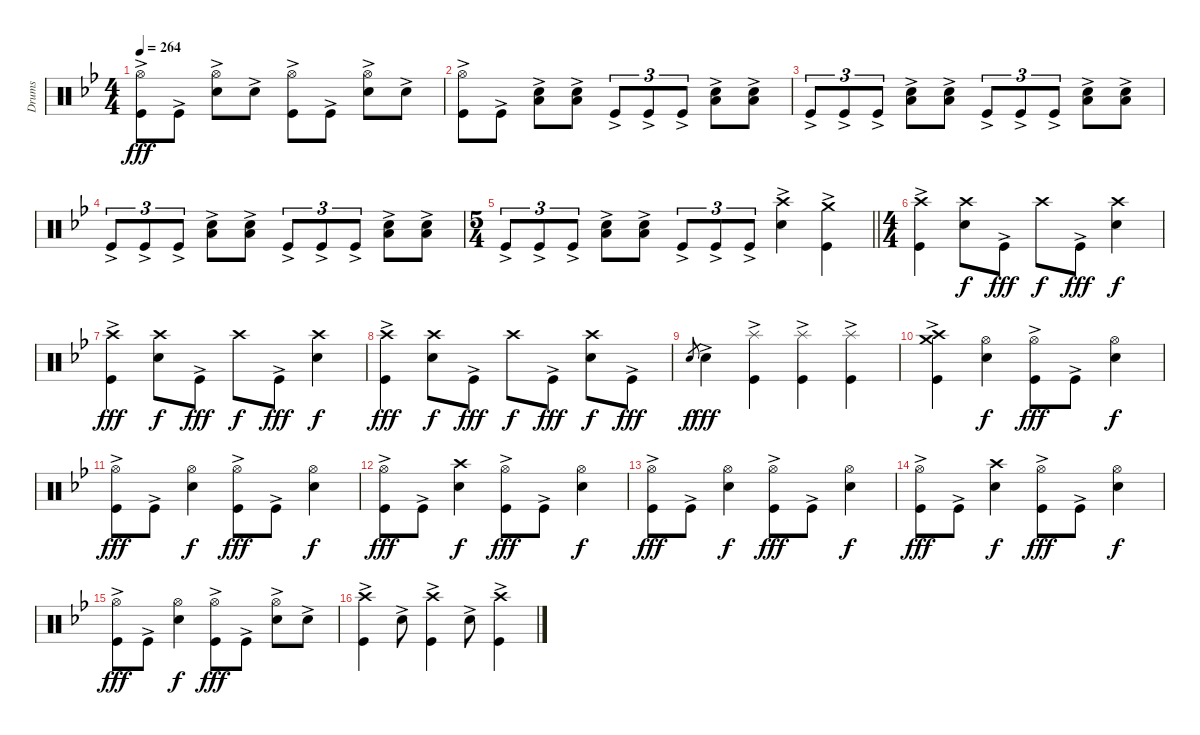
\track ("Drums" "Drums") {instrument percussion}
\staff {score}
\articulation defaults
\ts (4 4)
\tempo 264
\clef neutral
\ks gminor
("Hi-Hat (open)" "Kick (hit)"{ac}).8{dy fff} "Kick (hit)"{ac}.8 ("Hi-Hat (open)" "Snare (hit) 2"{ac}).8 "Snare (hit) 2"{ac}.8 ("Hi-Hat (open)" "Kick (hit)"{ac}).8 "Kick (hit)"{ac}.8 ("Hi-Hat (open)" "Snare (hit) 2"{ac}).8 "Snare (hit) 2"{ac}.8 |
("Hi-Hat (open)" "Kick (hit)"{ac}).8 "Kick (hit)"{ac}.8 ("Snare (hit) 2"{ac} "Low Tom (hit)").8 ("Snare (hit) 2"{ac} "Low Tom (hit)").8 "Kick (hit)"{ac}.8{tu (3 2)} "Kick (hit)"{ac}.8{tu (3 2)} "Kick (hit)"{ac}.8{tu (3 2)} ("Snare (hit) 2"{ac} "Low Tom (hit)").8 ("Snare (hit) 2"{ac} "Low Tom (hit)").8 |
"Kick (hit)"{ac}.8{tu (3 2)} "Kick (hit)"{ac}.8{tu (3 2)} "Kick (hit)"{ac}.8{tu (3 2)} ("Snare (hit) 2"{ac} "Low Tom (hit)").8 ("Snare (hit) 2"{ac} "Low Tom (hit)").8 "Kick (hit)"{ac}.8{tu (3 2)} "Kick (hit)"{ac}.8{tu (3 2)} "Kick (hit)"{ac}.8{tu (3 2)} ("Snare (hit) 2"{ac} "Low Tom (hit)").8 ("Snare (hit) 2"{ac} "Low Tom (hit)").8 |
"Kick (hit)"{ac}.8{tu (3 2)} "Kick (hit)"{ac}.8{tu (3 2)} "Kick (hit)"{ac}.8{tu (3 2)} ("Snare (hit) 2"{ac} "Low Tom (hit)").8 ("Snare (hit) 2"{ac} "Low Tom (hit)").8 "Kick (hit)"{ac}.8{tu (3 2)} "Kick (hit)"{ac}.8{tu (3 2)} "Kick (hit)"{ac}.8{tu (3 2)} ("Snare (hit) 2"{ac} "Low Tom (hit)").8 ("Snare (hit) 2"{ac} "Low Tom (hit)").8 |
\ts (5 4)
\barLineRight lightlight "Kick (hit)"{ac}.8{tu (3 2)} "Kick (hit)"{ac}.8{tu (3 2)} "Kick (hit)"{ac}.8{tu (3 2)}
("Snare (hit) 2"{ac} "Low Tom (hit)").8 ("Snare (hit) 2"{ac} "Low Tom (hit)").8 "Kick (hit)"{ac}.8{tu (3 2)} "Kick (hit)"{ac}.8{tu (3 2)} "Kick (hit)"{ac}.8{tu (3 2)} ("Crash high (hit)" "Snare (hit) 2"{ac}).4 ("Crash medium (hit)" "Kick (hit)"{ac}).4 |
\ts (4 4)
("Crash high (hit)" "Kick (hit)"{ac}).4 ("Crash high (hit)" "Snare (hit) 2").8{dy f} "Kick (hit)"{ac}.8{dy fff} "Crash high (hit)".8{dy f} "Kick (hit)"{ac}.8{dy fff} ("Crash high (hit)" "Snare (hit) 2").4{dy f} |
("Crash high (hit)" "Kick (hit)"{ac}).4{dy fff} ("Crash high (hit)" "Snare (hit) 2").8{dy f} "Kick (hit)"{ac}.8{dy fff} "Crash high (hit)".8{dy f} "Kick (hit)"{ac}.8{dy fff} ("Crash high (hit)" "Snare (hit) 2").4{dy f} |
("Crash high (hit)" "Kick (hit)"{ac}).4{dy fff} ("Crash high (hit)" "Snare (hit) 2").8{dy f} "Kick (hit)"{ac}.8{dy fff} "Crash high (hit)".8{dy f} "Kick (hit)"{ac}.8{dy fff} ("Crash high (hit)" "Snare (hit) 2").8{dy f} "Kick (hit)"{ac}.8{dy fff} |
"Snare (hit) 2".8{gr dy f} "Snare (hit) 2"{ac}.4{dy fff} ("Splash (hit)" "Kick (hit)"{ac}).4 ("Splash (hit)" "Kick (hit)"{ac}).4 ("Splash (hit)" "Kick (hit)"{ac}).4 |
("Crash high (hit)" "Crash medium (hit)" "Kick (hit)"{ac}).4 ("Hi-Hat (open)" "Snare (hit) 2").4{dy f} ("Hi-Hat (open)" "Kick (hit)"{ac}).8{dy fff} "Kick (hit)"{ac}.8 ("Hi-Hat (open)" "Snare (hit) 2").4{dy f} |
("Hi-Hat (open)" "Kick (hit)"{ac}).8{dy fff} "Kick (hit)"{ac}.8 ("Hi-Hat (open)" "Snare (hit) 2").4{dy f} ("Hi-Hat (open)" "Kick (hit)"{ac}).8{dy fff} "Kick (hit)"{ac}.8 ("Hi-Hat (open)" "Snare (hit) 2").4{dy f} |
("Hi-Hat (open)" "Kick (hit)"{ac}).8{dy fff} "Kick (hit)"{ac}.8 ("Crash high (hit)" "Snare (hit) 2").4{dy f} ("Hi-Hat (open)" "Kick (hit)"{ac}).8{dy fff} "Kick (hit)"{ac}.8 ("Hi-Hat (open)" "Snare (hit) 2").4{dy f} |
("Hi-Hat (open)" "Kick (hit)"{ac}).8{dy fff} "Kick (hit)"{ac}.8 ("Hi-Hat (open)" "Snare (hit) 2").4{dy f} ("Hi-Hat (open)" "Kick (hit)"{ac}).8{dy fff} "Kick (hit)"{ac}.8 ("Hi-Hat (open)" "Snare (hit) 2").4{dy f} |
("Hi-Hat (open)" "Kick (hit)"{ac}).8{dy fff} "Kick (hit)"{ac}.8 ("Crash high (hit)" "Snare (hit) 2").4{dy f} ("Hi-Hat (open)" "Kick (hit)"{ac}).8{dy fff} "Kick (hit)"{ac}.8 ("Hi-Hat (open)" "Snare (hit) 2").4{dy f} |
("Hi-Hat (open)" "Kick (hit)"{ac}).8{dy fff} "Kick (hit)"{ac}.8 ("Hi-Hat (open)" "Snare (hit) 2").4{dy f} ("Hi-Hat (open)" "Kick (hit)"{ac}).8{dy fff} "Kick (hit)"{ac}.8 ("Hi-Hat (open)" "Snare (hit) 2"{ac}).8 "Snare (hit) 2"{ac}.8 |
("Crash high (hit)" "Kick (hit)"{ac}).4 "Snare (hit) 2"{ac}.8 ("Crash high (hit)" "Kick (hit)"{ac}).4 "Snare (hit) 2"{ac}.8 ("Crash high (hit)" "Kick (hit)"{ac}).4
